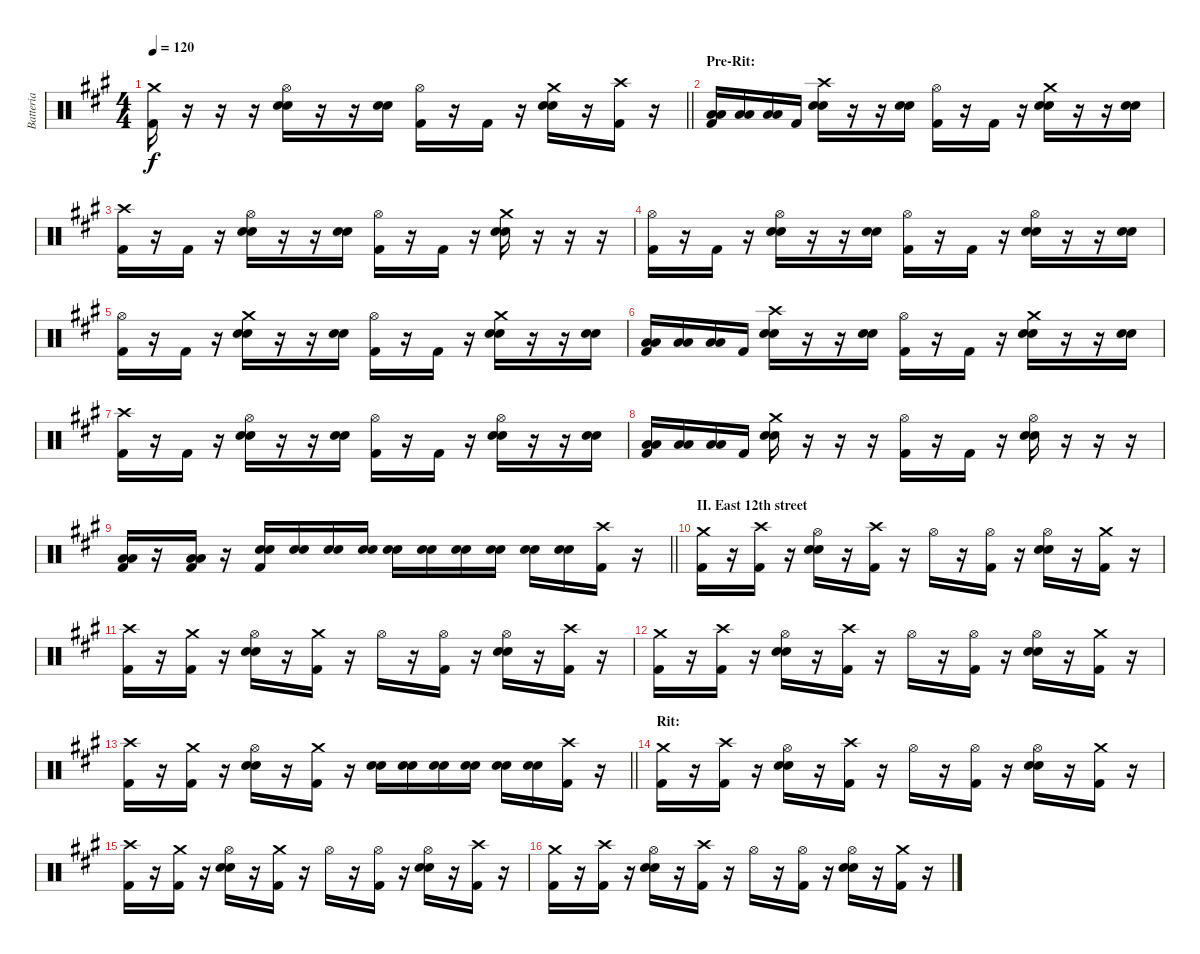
\track ("Batteria" "Batteria") {instrument percussion}
\staff {score}
\articulation defaults
\ts (4 4)
\tempo 120
\clef neutral
\barLineRight lightlight
\ks a
("Kick (hit) 2" "Crash medium (hit)").16{dy f} r.16 r.16 r.16 ("Snare (hit) 2" "Snare (hit) 2" "Hi-Hat (open)").16 r.16 r.16 ("Snare (hit) 2" "Snare (hit) 2").16 ("Kick (hit) 2" "Hi-Hat (open)").16 r.16 "Kick (hit) 2".16 r.16 ("Snare (hit) 2" "Snare (hit) 2" "Crash medium (hit)").16 r.16 ("Kick (hit) 2" "Crash high (hit)").16 r.16 |
\section ("" "Pre-Rit:")
("Kick (hit) 2" "Low Floor Tom (hit)" "Low Floor Tom (hit)").16 ("Low Floor Tom (hit)" "Low Floor Tom (hit)").16 ("Low Floor Tom (hit)" "Low Floor Tom (hit)").16 "Kick (hit) 2".16 ("Snare (hit) 2" "Snare (hit) 2" "Crash high (hit)").16 r.16 r.16 ("Snare (hit) 2" "Snare (hit) 2").16 ("Kick (hit) 2" "Hi-Hat (open)").16 r.16 "Kick (hit) 2".16 r.16 ("Snare (hit) 2" "Snare (hit) 2" "Crash medium (hit)").16 r.16 r.16 ("Snare (hit) 2" "Snare (hit) 2").16 |
("Kick (hit) 2" "Crash high (hit)").16 r.16 "Kick (hit) 2".16 r.16 ("Snare (hit) 2" "Snare (hit) 2" "Hi-Hat (open)").16 r.16 r.16 ("Snare (hit) 2" "Snare (hit) 2").16 ("Kick (hit) 2" "Hi-Hat (open)").16 r.16 "Kick (hit) 2".16 r.16 ("Snare (hit) 2" "Snare (hit) 2" "Crash medium (hit)").16 r.16 r.16 r.16 |
("Kick (hit) 2" "Hi-Hat (open)").16 r.16 "Kick (hit) 2".16 r.16 ("Snare (hit) 2" "Snare (hit) 2" "Hi-Hat (open)").16 r.16 r.16 ("Snare (hit) 2" "Snare (hit) 2").16 ("Kick (hit) 2" "Hi-Hat (open)").16 r.16 "Kick (hit) 2".16 r.16 ("Snare (hit) 2" "Snare (hit) 2" "Hi-Hat (open)").16 r.16 r.16 ("Snare (hit) 2" "Snare (hit) 2").16 |
("Kick (hit) 2" "Hi-Hat (open)").16 r.16 "Kick (hit) 2".16 r.16 ("Snare (hit) 2" "Snare (hit) 2" "Crash medium (hit)").16 r.16 r.16 ("Snare (hit) 2" "Snare (hit) 2").16 ("Kick (hit) 2" "Hi-Hat (open)").16 r.16 "Kick (hit) 2".16 r.16 ("Snare (hit) 2" "Snare (hit) 2" "Crash medium (hit)").16 r.16 r.16 ("Snare (hit) 2" "Snare (hit) 2").16 |
("Kick (hit) 2" "Low Floor Tom (hit)" "Low Floor Tom (hit)").16 ("Low Floor Tom (hit)" "Low Floor Tom (hit)").16 ("Low Floor Tom (hit)" "Low Floor Tom (hit)").16 "Kick (hit) 2".16 ("Snare (hit) 2" "Snare (hit) 2" "Crash high (hit)").16 r.16 r.16 ("Snare (hit) 2" "Snare (hit) 2").16 ("Kick (hit) 2" "Hi-Hat (open)").16 r.16 "Kick (hit) 2".16 r.16 ("Snare (hit) 2" "Snare (hit) 2" "Crash medium (hit)").16 r.16 r.16 ("Snare (hit) 2" "Snare (hit) 2").16 |
("Kick (hit) 2" "Crash high (hit)").16 r.16 "Kick (hit) 2".16 r.16 ("Snare (hit) 2" "Snare (hit) 2" "Hi-Hat (open)").16 r.16 r.16 ("Snare (hit) 2" "Snare (hit) 2").16 ("Kick (hit) 2" "Hi-Hat (open)").16 r.16 "Kick (hit) 2".16 r.16 ("Snare (hit) 2" "Snare (hit) 2" "Hi-Hat (open)").16 r.16 r.16 ("Snare (hit) 2" "Snare (hit) 2").16 |
("Kick (hit) 2" "Low Floor Tom (hit)" "Low Floor Tom (hit)").16 ("Low Floor Tom (hit)" "Low Floor Tom (hit)").16 ("Low Floor Tom (hit)" "Low Floor Tom (hit)").16 "Kick (hit) 2".16 ("Snare (hit) 2" "Snare (hit) 2" "Crash medium (hit)").16 r.16 r.16 r.16 ("Kick (hit) 2" "Hi-Hat (open)").16 r.16 "Kick (hit) 2".16 r.16 ("Snare (hit) 2" "Snare (hit) 2" "Hi-Hat (open)").16 r.16 r.16 r.16 |
\barLineRight lightlight
("Kick (hit) 2" "Low Floor Tom (hit)" "Low Floor Tom (hit)").16 r.16 ("Kick (hit) 2" "Low Floor Tom (hit)" "Low Floor Tom (hit)").16 r.16 ("Kick (hit) 2" "Snare (hit) 2" "Snare (hit) 2").16 ("Snare (hit) 2" "Snare (hit) 2").16 ("Snare (hit) 2" "Snare (hit) 2").16 ("Snare (hit) 2" "Snare (hit) 2").16 ("Snare (hit) 2" "Snare (hit) 2").16 ("Snare (hit) 2" "Snare (hit) 2").16 ("Snare (hit) 2" "Snare (hit) 2").16 ("Snare (hit) 2" "Snare (hit) 2").16 ("Snare (hit) 2" "Snare (hit) 2").16 ("Snare (hit) 2" "Snare (hit) 2").16 ("Kick (hit) 2" "Crash high (hit)").16 r.16 |
\section ("" "II. East 12th street")
("Kick (hit) 2" "Crash medium (hit)").16 r.16 ("Kick (hit) 2" "Crash high (hit)").16 r.16 ("Snare (hit) 2" "Snare (hit) 2" "Hi-Hat (open)").16 r.16 ("Kick (hit) 2" "Crash high (hit)").16 r.16 "Hi-Hat (open)".16 r.16 ("Kick (hit) 2" "Hi-Hat (open)").16 r.16 ("Snare (hit) 2" "Snare (hit) 2" "Hi-Hat (open)").16 r.16 ("Kick (hit) 2" "Crash medium (hit)").16 r.16 |
("Kick (hit) 2" "Crash high (hit)").16 r.16 ("Kick (hit) 2" "Crash medium (hit)").16 r.16 ("Snare (hit) 2" "Snare (hit) 2" "Hi-Hat (open)").16 r.16 ("Kick (hit) 2" "Crash medium (hit)").16 r.16 "Hi-Hat (open)".16 r.16 ("Kick (hit) 2" "Hi-Hat (open)").16 r.16 ("Snare (hit) 2" "Snare (hit) 2" "Hi-Hat (open)").16 r.16 ("Kick (hit) 2" "Crash high (hit)").16 r.16 |
("Kick (hit) 2" "Crash medium (hit)").16 r.16 ("Kick (hit) 2" "Crash high (hit)").16 r.16 ("Snare (hit) 2" "Snare (hit) 2" "Hi-Hat (open)").16 r.16 ("Kick (hit) 2" "Crash high (hit)").16 r.16 "Hi-Hat (open)".16 r.16 ("Kick (hit) 2" "Hi-Hat (open)").16 r.16 ("Snare (hit) 2" "Snare (hit) 2" "Hi-Hat (open)").16 r.16 ("Kick (hit) 2" "Crash medium (hit)").16 r.16 |
\barLineRight lightlight
("Kick (hit) 2" "Crash high (hit)").16 r.16 ("Kick (hit) 2" "Crash medium (hit)").16 r.16 ("Snare (hit) 2" "Snare (hit) 2" "Hi-Hat (open)").16 r.16 ("Kick (hit) 2" "Crash medium (hit)").16 r.16 ("Snare (hit) 2" "Snare (hit) 2").16 ("Snare (hit) 2" "Snare (hit) 2").16 ("Snare (hit) 2" "Snare (hit) 2").16 ("Snare (hit) 2" "Snare (hit) 2").16 ("Snare (hit) 2" "Snare (hit) 2").16 ("Snare (hit) 2" "Snare (hit) 2").16 ("Kick (hit) 2" "Crash high (hit)").16 r.16 |
\section ("" "Rit:")
("Kick (hit) 2" "Crash medium (hit)").16 r.16 ("Kick (hit) 2" "Crash high (hit)").16 r.16 ("Snare (hit) 2" "Snare (hit) 2" "Hi-Hat (open)").16 r.16 ("Kick (hit) 2" "Crash high (hit)").16 r.16 "Hi-Hat (open)".16 r.16 ("Kick (hit) 2" "Hi-Hat (open)").16 r.16 ("Snare (hit) 2" "Snare (hit) 2" "Hi-Hat (open)").16 r.16 ("Kick (hit) 2" "Crash medium (hit)").16 r.16 |
("Kick (hit) 2" "Crash high (hit)").16 r.16 ("Kick (hit) 2" "Crash medium (hit)").16 r.16 ("Snare (hit) 2" "Snare (hit) 2" "Hi-Hat (open)").16 r.16 ("Kick (hit) 2" "Crash medium (hit)").16 r.16 "Hi-Hat (open)".16 r.16 ("Kick (hit) 2" "Hi-Hat (open)").16 r.16 ("Snare (hit) 2" "Snare (hit) 2" "Hi-Hat (open)").16 r.16 ("Kick (hit) 2" "Crash high (hit)").16 r.16 |
("Kick (hit) 2" "Crash medium (hit)").16 r.16 ("Kick (hit) 2" "Crash high (hit)").16 r.16 ("Snare (hit) 2" "Snare (hit) 2" "Hi-Hat (open)").16 r.16 ("Kick (hit) 2" "Crash high (hit)").16 r.16 "Hi-Hat (open)".16 r.16 ("Kick (hit) 2" "Hi-Hat (open)").16 r.16 ("Snare (hit) 2" "Snare (hit) 2" "Hi-Hat (open)").16 r.16 ("Kick (hit) 2" "Crash medium (hit)").16 r.16
